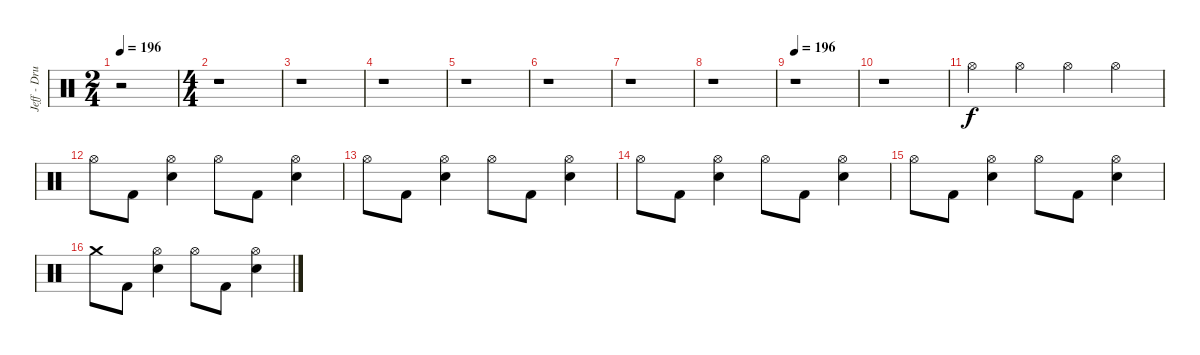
\track ("Jeff - Drums" "Jeff - Dru") {instrument percussion}
\staff {score}
\articulation defaults
\ts (2 4)
\tempo 196
\tempo 98
\tempo 196
\clef neutral
\ks c
r.2{dy f} |
\ts (4 4)
r.1 |
r.1 |
r.1 |
r.1 |
r.1 |
r.1 |
r.1 |
\tempo 196
r.1 |
r.1 |
"Hi-Hat (open)".4 "Hi-Hat (open)".4 "Hi-Hat (open)".4 "Hi-Hat (open)".4 |
"Hi-Hat (open)".8 "Kick (hit) 2".8 ("Hi-Hat (open)" "Electric Snare (hit)").4 "Hi-Hat (open)".8 "Kick (hit) 2".8 ("Hi-Hat (open)" "Electric Snare (hit)").4 |
"Hi-Hat (open)".8 "Kick (hit) 2".8 ("Hi-Hat (open)" "Electric Snare (hit)").4 "Hi-Hat (open)".8 "Kick (hit) 2".8 ("Hi-Hat (open)" "Electric Snare (hit)").4 |
"Hi-Hat (open)".8 "Kick (hit) 2".8 ("Hi-Hat (open)" "Electric Snare (hit)").4 "Hi-Hat (open)".8 "Kick (hit) 2".8 ("Hi-Hat (open)" "Electric Snare (hit)").4 |
"Hi-Hat (open)".8 "Kick (hit) 2".8 ("Hi-Hat (open)" "Electric Snare (hit)").4 "Hi-Hat (open)".8 "Kick (hit) 2".8 ("Hi-Hat (open)" "Electric Snare (hit)").4 |
"Crash medium (hit)".8 "Kick (hit) 2".8 ("Hi-Hat (open)" "Electric Snare (hit)").4 "Hi-Hat (open)".8 "Kick (hit) 2".8 ("Hi-Hat (open)" "Electric Snare (hit)").4
